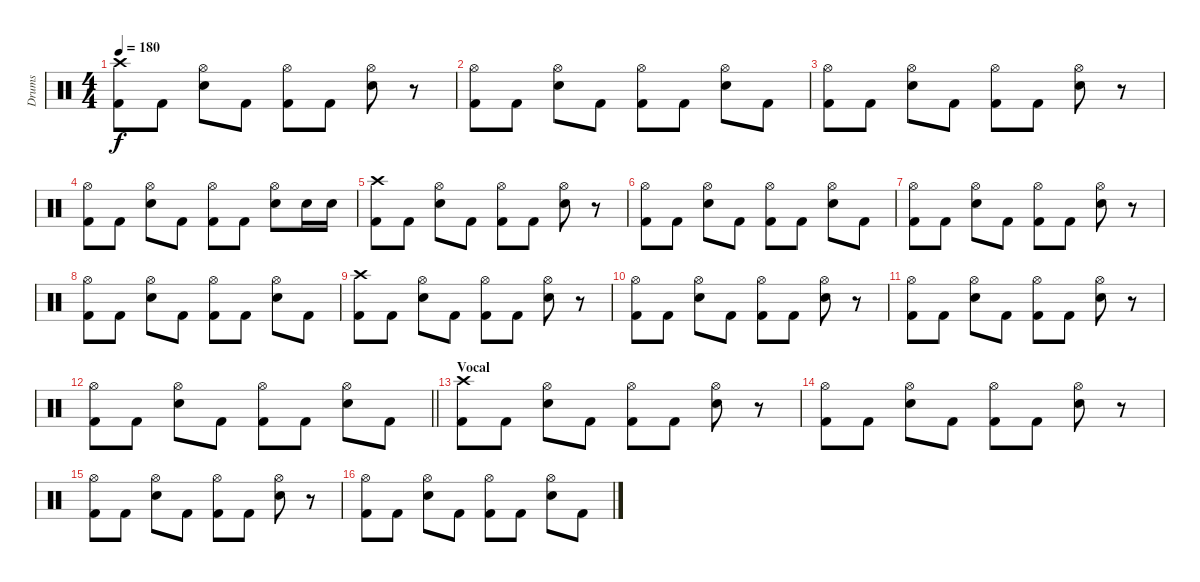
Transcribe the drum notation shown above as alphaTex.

\track ("Drums" "Drums") {instrument percussion}
\staff {score}
\articulation defaults
\ts (4 4)
\tempo 180
\clef neutral
\ks c
("Kick (hit) 2" "Crash high (hit)").8{dy f} "Kick (hit) 2".8 ("Electric Snare (hit)" "Hi-Hat (open)").8 "Kick (hit) 2".8 ("Kick (hit) 2" "Hi-Hat (open)").8 "Kick (hit) 2".8 ("Electric Snare (hit)" "Hi-Hat (open)").8 r.8 |
("Kick (hit) 2" "Hi-Hat (open)").8 "Kick (hit) 2".8 ("Electric Snare (hit)" "Hi-Hat (open)").8 "Kick (hit) 2".8 ("Kick (hit) 2" "Hi-Hat (open)").8 "Kick (hit) 2".8 ("Electric Snare (hit)" "Hi-Hat (open)").8 "Kick (hit) 2".8 |
("Kick (hit) 2" "Hi-Hat (open)").8 "Kick (hit) 2".8 ("Electric Snare (hit)" "Hi-Hat (open)").8 "Kick (hit) 2".8 ("Kick (hit) 2" "Hi-Hat (open)").8 "Kick (hit) 2".8 ("Electric Snare (hit)" "Hi-Hat (open)").8 r.8 |
("Kick (hit) 2" "Hi-Hat (open)").8 "Kick (hit) 2".8 ("Electric Snare (hit)" "Hi-Hat (open)").8 "Kick (hit) 2".8 ("Kick (hit) 2" "Hi-Hat (open)").8 "Kick (hit) 2".8 ("Electric Snare (hit)" "Hi-Hat (open)").8 "Electric Snare (hit)".16 "Electric Snare (hit)".16 |
("Kick (hit) 2" "Crash high (hit)").8 "Kick (hit) 2".8 ("Electric Snare (hit)" "Hi-Hat (open)").8 "Kick (hit) 2".8 ("Kick (hit) 2" "Hi-Hat (open)").8 "Kick (hit) 2".8 ("Electric Snare (hit)" "Hi-Hat (open)").8 r.8 |
("Kick (hit) 2" "Hi-Hat (open)").8 "Kick (hit) 2".8 ("Electric Snare (hit)" "Hi-Hat (open)").8 "Kick (hit) 2".8 ("Kick (hit) 2" "Hi-Hat (open)").8 "Kick (hit) 2".8 ("Electric Snare (hit)" "Hi-Hat (open)").8 "Kick (hit) 2".8 |
("Kick (hit) 2" "Hi-Hat (open)").8 "Kick (hit) 2".8 ("Electric Snare (hit)" "Hi-Hat (open)").8 "Kick (hit) 2".8 ("Kick (hit) 2" "Hi-Hat (open)").8 "Kick (hit) 2".8 ("Electric Snare (hit)" "Hi-Hat (open)").8 r.8 |
("Kick (hit) 2" "Hi-Hat (open)").8 "Kick (hit) 2".8 ("Electric Snare (hit)" "Hi-Hat (open)").8 "Kick (hit) 2".8 ("Kick (hit) 2" "Hi-Hat (open)").8 "Kick (hit) 2".8 ("Electric Snare (hit)" "Hi-Hat (open)").8 "Kick (hit) 2".8 |
("Kick (hit) 2" "Crash high (hit)").8 "Kick (hit) 2".8 ("Electric Snare (hit)" "Hi-Hat (open)").8 "Kick (hit) 2".8 ("Kick (hit) 2" "Hi-Hat (open)").8 "Kick (hit) 2".8 ("Electric Snare (hit)" "Hi-Hat (open)").8 r.8 |
("Kick (hit) 2" "Hi-Hat (open)").8 "Kick (hit) 2".8 ("Electric Snare (hit)" "Hi-Hat (open)").8 "Kick (hit) 2".8 ("Kick (hit) 2" "Hi-Hat (open)").8 "Kick (hit) 2".8 ("Electric Snare (hit)" "Hi-Hat (open)").8 r.8 |
("Kick (hit) 2" "Hi-Hat (open)").8 "Kick (hit) 2".8 ("Electric Snare (hit)" "Hi-Hat (open)").8 "Kick (hit) 2".8 ("Kick (hit) 2" "Hi-Hat (open)").8 "Kick (hit) 2".8 ("Electric Snare (hit)" "Hi-Hat (open)").8 r.8 |
\barLineRight lightlight
("Kick (hit) 2" "Hi-Hat (open)").8 "Kick (hit) 2".8 ("Electric Snare (hit)" "Hi-Hat (open)").8 "Kick (hit) 2".8 ("Kick (hit) 2" "Hi-Hat (open)").8 "Kick (hit) 2".8 ("Electric Snare (hit)" "Hi-Hat (open)").8 "Kick (hit) 2".8 |
\section ("" "Vocal")
("Kick (hit) 2" "Crash high (hit)").8 "Kick (hit) 2".8 ("Electric Snare (hit)" "Hi-Hat (open)").8 "Kick (hit) 2".8 ("Kick (hit) 2" "Hi-Hat (open)").8 "Kick (hit) 2".8 ("Electric Snare (hit)" "Hi-Hat (open)").8 r.8 |
("Kick (hit) 2" "Hi-Hat (open)").8 "Kick (hit) 2".8 ("Electric Snare (hit)" "Hi-Hat (open)").8 "Kick (hit) 2".8 ("Kick (hit) 2" "Hi-Hat (open)").8 "Kick (hit) 2".8 ("Electric Snare (hit)" "Hi-Hat (open)").8 r.8 |
("Kick (hit) 2" "Hi-Hat (open)").8 "Kick (hit) 2".8 ("Electric Snare (hit)" "Hi-Hat (open)").8 "Kick (hit) 2".8 ("Kick (hit) 2" "Hi-Hat (open)").8 "Kick (hit) 2".8 ("Electric Snare (hit)" "Hi-Hat (open)").8 r.8 |
("Kick (hit) 2" "Hi-Hat (open)").8 "Kick (hit) 2".8 ("Electric Snare (hit)" "Hi-Hat (open)").8 "Kick (hit) 2".8 ("Kick (hit) 2" "Hi-Hat (open)").8 "Kick (hit) 2".8 ("Electric Snare (hit)" "Hi-Hat (open)").8 "Kick (hit) 2".8
